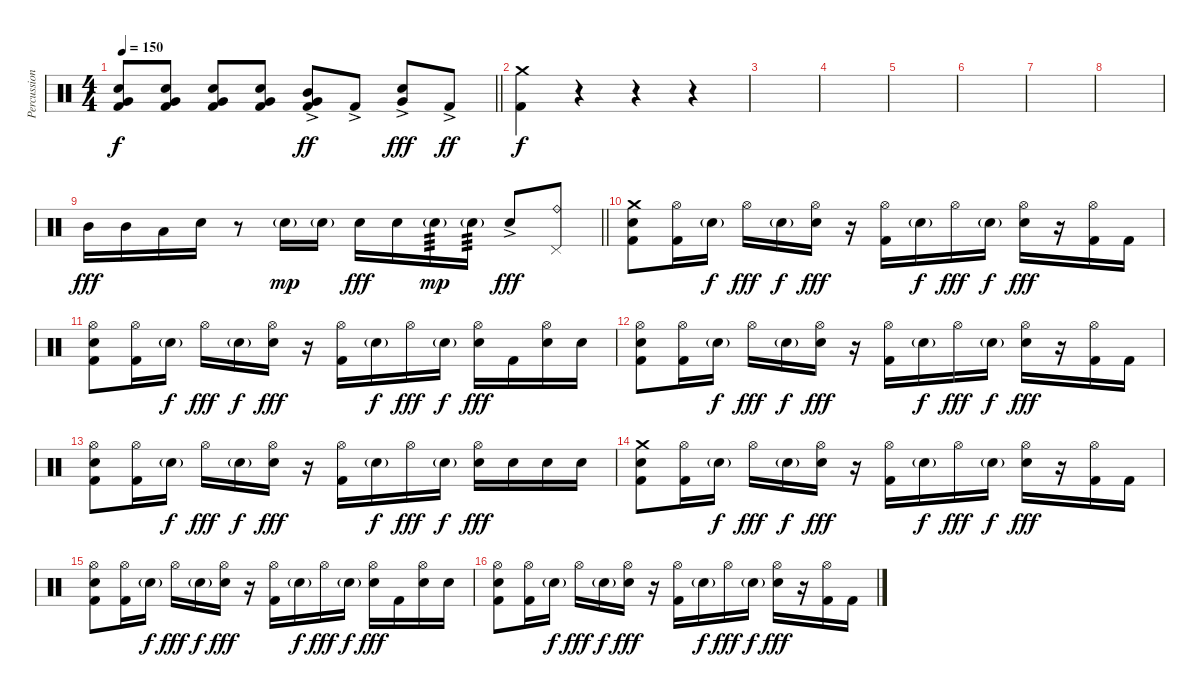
\track ("Percussion" "Percussion") {instrument percussion}
\staff {score}
\articulation defaults
\ts (4 4)
\tempo 150
\clef neutral
\barLineRight lightlight
\ks c
("Electric Snare (hit)" "Very Low Tom (hit)" "Kick (hit) 2").8{dy f} ("Electric Snare (hit)" "Very Low Tom (hit)" "Kick (hit) 2").8 ("Electric Snare (hit)" "Very Low Tom (hit)" "Kick (hit) 2").8 ("Electric Snare (hit)" "Very Low Tom (hit)" "Kick (hit) 2").8 ("Mid Tom (hit)"{ac} "Very Low Tom (hit)"{ac} "Kick (hit) 2"{ac}).8{dy ff} "Kick (hit) 2"{ac}.8 ("Electric Snare (hit)"{ac} "Very Low Tom (hit)"{ac}).8{dy fff} "Kick (hit) 2"{ac}.8{dy ff} |
\section ("" "")
("Crash medium (hit)" "Kick (hit) 2").4{dy f} r.4 r.4 r.4 |
|
|
|
|
|
|
\barLineRight lightlight "Mid Tom (hit)".16{dy fff} "Mid Tom (hit)".16 "Low Tom (hit)".16 "Electric Snare (hit)".16
r.8 "Electric Snare (hit)"{g}.16{dy mp} "Electric Snare (hit)"{g}.16 "Electric Snare (hit)".16{dy fff} "Electric Snare (hit)".16 "Electric Snare (hit)"{g}.16{tp 3 dy mp} "Electric Snare (hit)"{g}.16{tp 3} "Electric Snare (hit)"{ac}.8{dy fff} ("Ride (bell)" "Pedal Hi-Hat (hit)").8 |
\section ("" "")
("Crash medium (hit)" "Electric Snare (hit)" "Kick (hit) 2").8 ("Hi-Hat (open)" "Kick (hit) 2").16 "Electric Snare (hit)"{g}.16{dy f} "Hi-Hat (open)".16{dy fff} "Electric Snare (hit)"{g}.16{dy f} ("Hi-Hat (open)" "Electric Snare (hit)").16{dy fff} r.16 ("Hi-Hat (open)" "Kick (hit) 2").16 "Electric Snare (hit)"{g}.16{dy f} "Hi-Hat (open)".16{dy fff} "Electric Snare (hit)"{g}.16{dy f} ("Hi-Hat (open)" "Electric Snare (hit)").16{dy fff} r.16 ("Hi-Hat (open)" "Kick (hit) 2").16 "Kick (hit) 2".16 |
("Hi-Hat (open)" "Electric Snare (hit)" "Kick (hit) 2").8 ("Hi-Hat (open)" "Kick (hit) 2").16 "Electric Snare (hit)"{g}.16{dy f} "Hi-Hat (open)".16{dy fff} "Electric Snare (hit)"{g}.16{dy f} ("Hi-Hat (open)" "Electric Snare (hit)").16{dy fff} r.16 ("Hi-Hat (open)" "Kick (hit) 2").16 "Electric Snare (hit)"{g}.16{dy f} "Hi-Hat (open)".16{dy fff} "Electric Snare (hit)"{g}.16{dy f} ("Hi-Hat (open)" "Electric Snare (hit)").16{dy fff} "Kick (hit) 2".16 ("Hi-Hat (open)" "Electric Snare (hit)").16 "Electric Snare (hit)".16 |
("Hi-Hat (open)" "Electric Snare (hit)" "Kick (hit) 2").8 ("Hi-Hat (open)" "Kick (hit) 2").16 "Electric Snare (hit)"{g}.16{dy f} "Hi-Hat (open)".16{dy fff} "Electric Snare (hit)"{g}.16{dy f} ("Hi-Hat (open)" "Electric Snare (hit)").16{dy fff} r.16 ("Hi-Hat (open)" "Kick (hit) 2").16 "Electric Snare (hit)"{g}.16{dy f} "Hi-Hat (open)".16{dy fff} "Electric Snare (hit)"{g}.16{dy f} ("Hi-Hat (open)" "Electric Snare (hit)").16{dy fff} r.16 ("Hi-Hat (open)" "Kick (hit) 2").16 "Kick (hit) 2".16 |
("Hi-Hat (open)" "Electric Snare (hit)" "Kick (hit) 2").8 ("Hi-Hat (open)" "Kick (hit) 2").16 "Electric Snare (hit)"{g}.16{dy f} "Hi-Hat (open)".16{dy fff} "Electric Snare (hit)"{g}.16{dy f} ("Hi-Hat (open)" "Electric Snare (hit)").16{dy fff} r.16 ("Hi-Hat (open)" "Kick (hit) 2").16 "Electric Snare (hit)"{g}.16{dy f} "Hi-Hat (open)".16{dy fff} "Electric Snare (hit)"{g}.16{dy f} ("Hi-Hat (open)" "Electric Snare (hit)").16{dy fff} "Electric Snare (hit)".16 "Electric Snare (hit)".16 "Electric Snare (hit)".16 |
("Crash medium (hit)" "Electric Snare (hit)" "Kick (hit) 2").8 ("Hi-Hat (open)" "Kick (hit) 2").16 "Electric Snare (hit)"{g}.16{dy f} "Hi-Hat (open)".16{dy fff} "Electric Snare (hit)"{g}.16{dy f} ("Hi-Hat (open)" "Electric Snare (hit)").16{dy fff} r.16 ("Hi-Hat (open)" "Kick (hit) 2").16 "Electric Snare (hit)"{g}.16{dy f} "Hi-Hat (open)".16{dy fff} "Electric Snare (hit)"{g}.16{dy f} ("Hi-Hat (open)" "Electric Snare (hit)").16{dy fff} r.16 ("Hi-Hat (open)" "Kick (hit) 2").16 "Kick (hit) 2".16 |
("Hi-Hat (open)" "Electric Snare (hit)" "Kick (hit) 2").8 ("Hi-Hat (open)" "Kick (hit) 2").16 "Electric Snare (hit)"{g}.16{dy f} "Hi-Hat (open)".16{dy fff} "Electric Snare (hit)"{g}.16{dy f} ("Hi-Hat (open)" "Electric Snare (hit)").16{dy fff} r.16 ("Hi-Hat (open)" "Kick (hit) 2").16 "Electric Snare (hit)"{g}.16{dy f} "Hi-Hat (open)".16{dy fff} "Electric Snare (hit)"{g}.16{dy f} ("Hi-Hat (open)" "Electric Snare (hit)").16{dy fff} "Kick (hit) 2".16 ("Hi-Hat (open)" "Electric Snare (hit)").16 "Electric Snare (hit)".16 |
("Hi-Hat (open)" "Electric Snare (hit)" "Kick (hit) 2").8 ("Hi-Hat (open)" "Kick (hit) 2").16 "Electric Snare (hit)"{g}.16{dy f} "Hi-Hat (open)".16{dy fff} "Electric Snare (hit)"{g}.16{dy f} ("Hi-Hat (open)" "Electric Snare (hit)").16{dy fff} r.16 ("Hi-Hat (open)" "Kick (hit) 2").16 "Electric Snare (hit)"{g}.16{dy f} "Hi-Hat (open)".16{dy fff} "Electric Snare (hit)"{g}.16{dy f} ("Hi-Hat (open)" "Electric Snare (hit)").16{dy fff} r.16 ("Hi-Hat (open)" "Kick (hit) 2").16 "Kick (hit) 2".16
